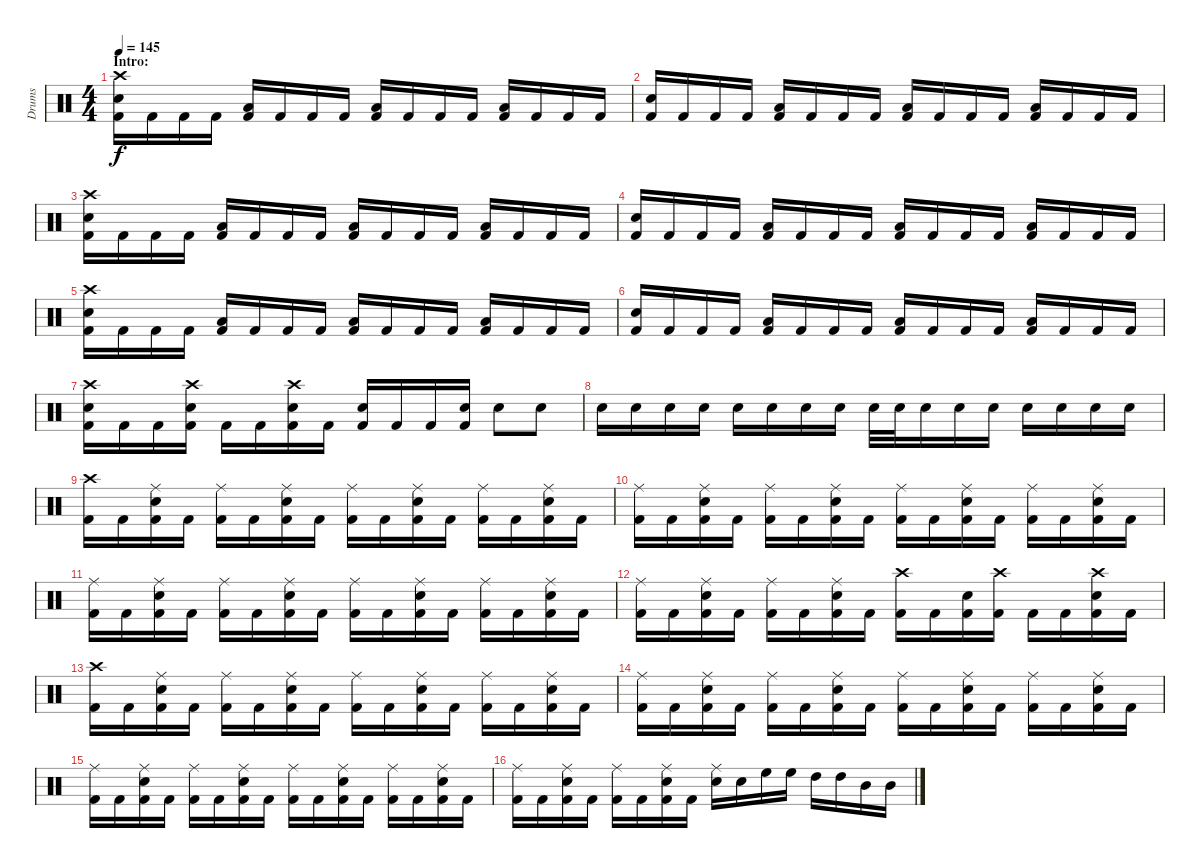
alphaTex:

\track ("Drums" "Drums") {instrument percussion}
\staff {score}
\articulation defaults
\ts (4 4)
\section ("" "Intro:")
\tempo 145
\clef neutral
\ks c
("Crash high (hit)" "Electric Snare (hit)" "Kick (hit) 2").16{dy f} "Kick (hit) 2".16 "Kick (hit) 2".16 "Kick (hit) 2".16 ("Low Floor Tom (hit)" "Kick (hit) 2").16 "Kick (hit) 2".16 "Kick (hit) 2".16 "Kick (hit) 2".16 ("Low Tom (hit)" "Kick (hit) 2").16 "Kick (hit) 2".16 "Kick (hit) 2".16 "Kick (hit) 2".16 ("Low Floor Tom (hit)" "Kick (hit) 2").16 "Kick (hit) 2".16 "Kick (hit) 2".16 "Kick (hit) 2".16 |
("Electric Snare (hit)" "Kick (hit) 2").16 "Kick (hit) 2".16 "Kick (hit) 2".16 "Kick (hit) 2".16 ("Low Floor Tom (hit)" "Kick (hit) 2").16 "Kick (hit) 2".16 "Kick (hit) 2".16 "Kick (hit) 2".16 ("Low Tom (hit)" "Kick (hit) 2").16 "Kick (hit) 2".16 "Kick (hit) 2".16 "Kick (hit) 2".16 ("Low Floor Tom (hit)" "Kick (hit) 2").16 "Kick (hit) 2".16 "Kick (hit) 2".16 "Kick (hit) 2".16 |
("Crash high (hit)" "Electric Snare (hit)" "Kick (hit) 2").16 "Kick (hit) 2".16 "Kick (hit) 2".16 "Kick (hit) 2".16 ("Low Floor Tom (hit)" "Kick (hit) 2").16 "Kick (hit) 2".16 "Kick (hit) 2".16 "Kick (hit) 2".16 ("Low Tom (hit)" "Kick (hit) 2").16 "Kick (hit) 2".16 "Kick (hit) 2".16 "Kick (hit) 2".16 ("Low Floor Tom (hit)" "Kick (hit) 2").16 "Kick (hit) 2".16 "Kick (hit) 2".16 "Kick (hit) 2".16 |
("Electric Snare (hit)" "Kick (hit) 2").16 "Kick (hit) 2".16 "Kick (hit) 2".16 "Kick (hit) 2".16 ("Low Floor Tom (hit)" "Kick (hit) 2").16 "Kick (hit) 2".16 "Kick (hit) 2".16 "Kick (hit) 2".16 ("Low Tom (hit)" "Kick (hit) 2").16 "Kick (hit) 2".16 "Kick (hit) 2".16 "Kick (hit) 2".16 ("Low Floor Tom (hit)" "Kick (hit) 2").16 "Kick (hit) 2".16 "Kick (hit) 2".16 "Kick (hit) 2".16 |
("Crash high (hit)" "Electric Snare (hit)" "Kick (hit) 2").16 "Kick (hit) 2".16 "Kick (hit) 2".16 "Kick (hit) 2".16 ("Low Floor Tom (hit)" "Kick (hit) 2").16 "Kick (hit) 2".16 "Kick (hit) 2".16 "Kick (hit) 2".16 ("Low Tom (hit)" "Kick (hit) 2").16 "Kick (hit) 2".16 "Kick (hit) 2".16 "Kick (hit) 2".16 ("Low Floor Tom (hit)" "Kick (hit) 2").16 "Kick (hit) 2".16 "Kick (hit) 2".16 "Kick (hit) 2".16 |
("Electric Snare (hit)" "Kick (hit) 2").16 "Kick (hit) 2".16 "Kick (hit) 2".16 "Kick (hit) 2".16 ("Low Floor Tom (hit)" "Kick (hit) 2").16 "Kick (hit) 2".16 "Kick (hit) 2".16 "Kick (hit) 2".16 ("Low Tom (hit)" "Kick (hit) 2").16 "Kick (hit) 2".16 "Kick (hit) 2".16 "Kick (hit) 2".16 ("Low Floor Tom (hit)" "Kick (hit) 2").16 "Kick (hit) 2".16 "Kick (hit) 2".16 "Kick (hit) 2".16 |
("Crash high (hit)" "Electric Snare (hit)" "Kick (hit) 2").16 "Kick (hit) 2".16 "Kick (hit) 2".16 ("Crash high (hit)" "Electric Snare (hit)" "Kick (hit) 2").16 "Kick (hit) 2".16 "Kick (hit) 2".16 ("Crash high (hit)" "Electric Snare (hit)" "Kick (hit) 2").16 "Kick (hit) 2".16 ("Electric Snare (hit)" "Kick (hit) 2").16 "Kick (hit) 2".16 "Kick (hit) 2".16 ("Electric Snare (hit)" "Kick (hit) 2").16 "Electric Snare (hit)".8 "Electric Snare (hit)".8 |
"Electric Snare (hit)".16 "Electric Snare (hit)".16 "Electric Snare (hit)".16 "Electric Snare (hit)".16 "Electric Snare (hit)".16 "Electric Snare (hit)".16 "Electric Snare (hit)".16 "Electric Snare (hit)".16 "Electric Snare (hit)".32 "Electric Snare (hit)".32 "Electric Snare (hit)".16 "Electric Snare (hit)".16 "Electric Snare (hit)".16 "Electric Snare (hit)".16 "Electric Snare (hit)".16 "Electric Snare (hit)".16 "Electric Snare (hit)".16 |
("Crash high (hit)" "Kick (hit) 2").16 "Kick (hit) 2".16 ("Ride (middle)" "Electric Snare (hit)" "Kick (hit) 2").16 "Kick (hit) 2".16 ("Ride (middle)" "Kick (hit) 2").16 "Kick (hit) 2".16 ("Ride (middle)" "Electric Snare (hit)" "Kick (hit) 2").16 "Kick (hit) 2".16 ("Ride (middle)" "Kick (hit) 2").16 "Kick (hit) 2".16 ("Ride (middle)" "Electric Snare (hit)" "Kick (hit) 2").16 "Kick (hit) 2".16 ("Ride (middle)" "Kick (hit) 2").16 "Kick (hit) 2".16 ("Ride (middle)" "Electric Snare (hit)" "Kick (hit) 2").16 "Kick (hit) 2".16 |
("Ride (middle)" "Kick (hit) 2").16 "Kick (hit) 2".16 ("Ride (middle)" "Electric Snare (hit)" "Kick (hit) 2").16 "Kick (hit) 2".16 ("Ride (middle)" "Kick (hit) 2").16 "Kick (hit) 2".16 ("Ride (middle)" "Electric Snare (hit)" "Kick (hit) 2").16 "Kick (hit) 2".16 ("Ride (middle)" "Kick (hit) 2").16 "Kick (hit) 2".16 ("Ride (middle)" "Electric Snare (hit)" "Kick (hit) 2").16 "Kick (hit) 2".16 ("Ride (middle)" "Kick (hit) 2").16 "Kick (hit) 2".16 ("Ride (middle)" "Electric Snare (hit)" "Kick (hit) 2").16 "Kick (hit) 2".16 |
("Ride (middle)" "Kick (hit) 2").16 "Kick (hit) 2".16 ("Ride (middle)" "Electric Snare (hit)" "Kick (hit) 2").16 "Kick (hit) 2".16 ("Ride (middle)" "Kick (hit) 2").16 "Kick (hit) 2".16 ("Ride (middle)" "Electric Snare (hit)" "Kick (hit) 2").16 "Kick (hit) 2".16 ("Ride (middle)" "Kick (hit) 2").16 "Kick (hit) 2".16 ("Ride (middle)" "Electric Snare (hit)" "Kick (hit) 2").16 "Kick (hit) 2".16 ("Ride (middle)" "Kick (hit) 2").16 "Kick (hit) 2".16 ("Ride (middle)" "Electric Snare (hit)" "Kick (hit) 2").16 "Kick (hit) 2".16 |
("Ride (middle)" "Kick (hit) 2").16 "Kick (hit) 2".16 ("Ride (middle)" "Electric Snare (hit)" "Kick (hit) 2").16 "Kick (hit) 2".16 ("Ride (middle)" "Kick (hit) 2").16 "Kick (hit) 2".16 ("Ride (middle)" "Electric Snare (hit)" "Kick (hit) 2").16 "Kick (hit) 2".16 ("Crash high (hit)" "Kick (hit) 2").16 "Kick (hit) 2".16 ("Electric Snare (hit)" "Kick (hit) 2").16 ("Crash high (hit)" "Kick (hit) 2").16 "Kick (hit) 2".16 "Kick (hit) 2".16 ("Crash high (hit)" "Electric Snare (hit)" "Kick (hit) 2").16 "Kick (hit) 2".16 |
("Crash high (hit)" "Kick (hit) 2").16 "Kick (hit) 2".16 ("Ride (middle)" "Electric Snare (hit)" "Kick (hit) 2").16 "Kick (hit) 2".16 ("Ride (middle)" "Kick (hit) 2").16 "Kick (hit) 2".16 ("Ride (middle)" "Electric Snare (hit)" "Kick (hit) 2").16 "Kick (hit) 2".16 ("Ride (middle)" "Kick (hit) 2").16 "Kick (hit) 2".16 ("Ride (middle)" "Electric Snare (hit)" "Kick (hit) 2").16 "Kick (hit) 2".16 ("Ride (middle)" "Kick (hit) 2").16 "Kick (hit) 2".16 ("Ride (middle)" "Electric Snare (hit)" "Kick (hit) 2").16 "Kick (hit) 2".16 |
("Ride (middle)" "Kick (hit) 2").16 "Kick (hit) 2".16 ("Ride (middle)" "Electric Snare (hit)" "Kick (hit) 2").16 "Kick (hit) 2".16 ("Ride (middle)" "Kick (hit) 2").16 "Kick (hit) 2".16 ("Ride (middle)" "Electric Snare (hit)" "Kick (hit) 2").16 "Kick (hit) 2".16 ("Ride (middle)" "Kick (hit) 2").16 "Kick (hit) 2".16 ("Ride (middle)" "Electric Snare (hit)" "Kick (hit) 2").16 "Kick (hit) 2".16 ("Ride (middle)" "Kick (hit) 2").16 "Kick (hit) 2".16 ("Ride (middle)" "Electric Snare (hit)" "Kick (hit) 2").16 "Kick (hit) 2".16 |
("Ride (middle)" "Kick (hit) 2").16 "Kick (hit) 2".16 ("Ride (middle)" "Electric Snare (hit)" "Kick (hit) 2").16 "Kick (hit) 2".16 ("Ride (middle)" "Kick (hit) 2").16 "Kick (hit) 2".16 ("Ride (middle)" "Electric Snare (hit)" "Kick (hit) 2").16 "Kick (hit) 2".16 ("Ride (middle)" "Kick (hit) 2").16 "Kick (hit) 2".16 ("Ride (middle)" "Electric Snare (hit)" "Kick (hit) 2").16 "Kick (hit) 2".16 ("Ride (middle)" "Kick (hit) 2").16 "Kick (hit) 2".16 ("Ride (middle)" "Electric Snare (hit)" "Kick (hit) 2").16 "Kick (hit) 2".16 |
("Ride (middle)" "Kick (hit) 2").16 "Kick (hit) 2".16 ("Ride (middle)" "Electric Snare (hit)" "Kick (hit) 2").16 "Kick (hit) 2".16 ("Ride (middle)" "Kick (hit) 2").16 "Kick (hit) 2".16 ("Ride (middle)" "Electric Snare (hit)" "Kick (hit) 2").16 "Kick (hit) 2".16 ("Ride (middle)" "Electric Snare (hit)").16 "Electric Snare (hit)".16 "High Floor Tom (hit)".16 "High Floor Tom (hit)".16 "High Tom (hit)".16 "High Tom (hit)".16 "Mid Tom (hit)".16 "Mid Tom (hit)".16
